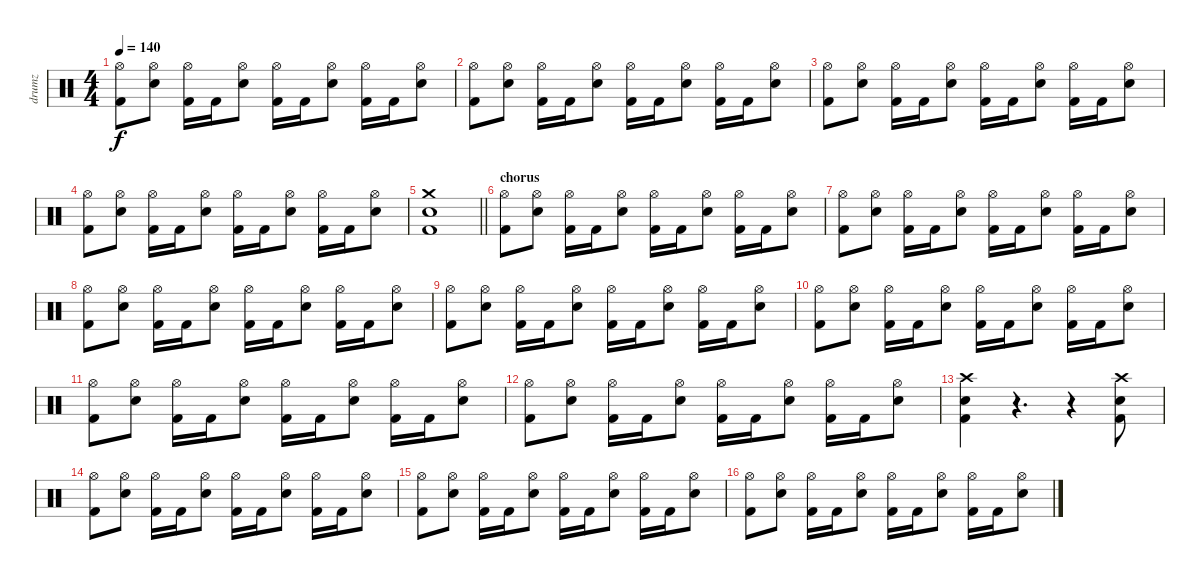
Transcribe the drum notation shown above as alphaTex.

\track ("drumz" "drumz") {instrument percussion}
\staff {score}
\articulation defaults
\ts (4 4)
\tempo 140
\clef neutral
\ks c
("Hi-Hat (open)" "Kick (hit) 2").8{dy f} ("Hi-Hat (open)" "Electric Snare (hit)").8 ("Hi-Hat (open)" "Kick (hit) 2").16 "Kick (hit) 2".16 ("Hi-Hat (open)" "Electric Snare (hit)").8 ("Hi-Hat (open)" "Kick (hit) 2").16 "Kick (hit) 2".16 ("Hi-Hat (open)" "Electric Snare (hit)").8 ("Hi-Hat (open)" "Kick (hit) 2").16 "Kick (hit) 2".16 ("Hi-Hat (open)" "Electric Snare (hit)").8 |
("Hi-Hat (open)" "Kick (hit) 2").8 ("Hi-Hat (open)" "Electric Snare (hit)").8 ("Hi-Hat (open)" "Kick (hit) 2").16 "Kick (hit) 2".16 ("Hi-Hat (open)" "Electric Snare (hit)").8 ("Hi-Hat (open)" "Kick (hit) 2").16 "Kick (hit) 2".16 ("Hi-Hat (open)" "Electric Snare (hit)").8 ("Hi-Hat (open)" "Kick (hit) 2").16 "Kick (hit) 2".16 ("Hi-Hat (open)" "Electric Snare (hit)").8 |
("Hi-Hat (open)" "Kick (hit) 2").8 ("Hi-Hat (open)" "Electric Snare (hit)").8 ("Hi-Hat (open)" "Kick (hit) 2").16 "Kick (hit) 2".16 ("Hi-Hat (open)" "Electric Snare (hit)").8 ("Hi-Hat (open)" "Kick (hit) 2").16 "Kick (hit) 2".16 ("Hi-Hat (open)" "Electric Snare (hit)").8 ("Hi-Hat (open)" "Kick (hit) 2").16 "Kick (hit) 2".16 ("Hi-Hat (open)" "Electric Snare (hit)").8 |
("Hi-Hat (open)" "Kick (hit) 2").8 ("Hi-Hat (open)" "Electric Snare (hit)").8 ("Hi-Hat (open)" "Kick (hit) 2").16 "Kick (hit) 2".16 ("Hi-Hat (open)" "Electric Snare (hit)").8 ("Hi-Hat (open)" "Kick (hit) 2").16 "Kick (hit) 2".16 ("Hi-Hat (open)" "Electric Snare (hit)").8 ("Hi-Hat (open)" "Kick (hit) 2").16 "Kick (hit) 2".16 ("Hi-Hat (open)" "Electric Snare (hit)").8 |
\barLineRight lightlight
("Crash medium (hit)" "Electric Snare (hit)" "Kick (hit) 2").1 |
\section ("" "chorus")
("Hi-Hat (open)" "Kick (hit) 2").8 ("Hi-Hat (open)" "Electric Snare (hit)").8 ("Hi-Hat (open)" "Kick (hit) 2").16 "Kick (hit) 2".16 ("Hi-Hat (open)" "Electric Snare (hit)").8 ("Hi-Hat (open)" "Kick (hit) 2").16 "Kick (hit) 2".16 ("Hi-Hat (open)" "Electric Snare (hit)").8 ("Hi-Hat (open)" "Kick (hit) 2").16 "Kick (hit) 2".16 ("Hi-Hat (open)" "Electric Snare (hit)").8 |
("Hi-Hat (open)" "Kick (hit) 2").8 ("Hi-Hat (open)" "Electric Snare (hit)").8 ("Hi-Hat (open)" "Kick (hit) 2").16 "Kick (hit) 2".16 ("Hi-Hat (open)" "Electric Snare (hit)").8 ("Hi-Hat (open)" "Kick (hit) 2").16 "Kick (hit) 2".16 ("Hi-Hat (open)" "Electric Snare (hit)").8 ("Hi-Hat (open)" "Kick (hit) 2").16 "Kick (hit) 2".16 ("Hi-Hat (open)" "Electric Snare (hit)").8 |
("Hi-Hat (open)" "Kick (hit) 2").8 ("Hi-Hat (open)" "Electric Snare (hit)").8 ("Hi-Hat (open)" "Kick (hit) 2").16 "Kick (hit) 2".16 ("Hi-Hat (open)" "Electric Snare (hit)").8 ("Hi-Hat (open)" "Kick (hit) 2").16 "Kick (hit) 2".16 ("Hi-Hat (open)" "Electric Snare (hit)").8 ("Hi-Hat (open)" "Kick (hit) 2").16 "Kick (hit) 2".16 ("Hi-Hat (open)" "Electric Snare (hit)").8 |
("Hi-Hat (open)" "Kick (hit) 2").8 ("Hi-Hat (open)" "Electric Snare (hit)").8 ("Hi-Hat (open)" "Kick (hit) 2").16 "Kick (hit) 2".16 ("Hi-Hat (open)" "Electric Snare (hit)").8 ("Hi-Hat (open)" "Kick (hit) 2").16 "Kick (hit) 2".16 ("Hi-Hat (open)" "Electric Snare (hit)").8 ("Hi-Hat (open)" "Kick (hit) 2").16 "Kick (hit) 2".16 ("Hi-Hat (open)" "Electric Snare (hit)").8 |
("Hi-Hat (open)" "Kick (hit) 2").8 ("Hi-Hat (open)" "Electric Snare (hit)").8 ("Hi-Hat (open)" "Kick (hit) 2").16 "Kick (hit) 2".16 ("Hi-Hat (open)" "Electric Snare (hit)").8 ("Hi-Hat (open)" "Kick (hit) 2").16 "Kick (hit) 2".16 ("Hi-Hat (open)" "Electric Snare (hit)").8 ("Hi-Hat (open)" "Kick (hit) 2").16 "Kick (hit) 2".16 ("Hi-Hat (open)" "Electric Snare (hit)").8 |
("Hi-Hat (open)" "Kick (hit) 2").8 ("Hi-Hat (open)" "Electric Snare (hit)").8 ("Hi-Hat (open)" "Kick (hit) 2").16 "Kick (hit) 2".16 ("Hi-Hat (open)" "Electric Snare (hit)").8 ("Hi-Hat (open)" "Kick (hit) 2").16 "Kick (hit) 2".16 ("Hi-Hat (open)" "Electric Snare (hit)").8 ("Hi-Hat (open)" "Kick (hit) 2").16 "Kick (hit) 2".16 ("Hi-Hat (open)" "Electric Snare (hit)").8 |
("Hi-Hat (open)" "Kick (hit) 2").8 ("Hi-Hat (open)" "Electric Snare (hit)").8 ("Hi-Hat (open)" "Kick (hit) 2").16 "Kick (hit) 2".16 ("Hi-Hat (open)" "Electric Snare (hit)").8 ("Hi-Hat (open)" "Kick (hit) 2").16 "Kick (hit) 2".16 ("Hi-Hat (open)" "Electric Snare (hit)").8 ("Hi-Hat (open)" "Kick (hit) 2").16 "Kick (hit) 2".16 ("Hi-Hat (open)" "Electric Snare (hit)").8 |
("Crash high (hit)" "Electric Snare (hit)" "Kick (hit) 2").4 r.4{d} r.4 ("Crash high (hit)" "Electric Snare (hit)" "Kick (hit) 2").8 |
("Hi-Hat (open)" "Kick (hit) 2").8 ("Hi-Hat (open)" "Electric Snare (hit)").8 ("Hi-Hat (open)" "Kick (hit) 2").16 "Kick (hit) 2".16 ("Hi-Hat (open)" "Electric Snare (hit)").8 ("Hi-Hat (open)" "Kick (hit) 2").16 "Kick (hit) 2".16 ("Hi-Hat (open)" "Electric Snare (hit)").8 ("Hi-Hat (open)" "Kick (hit) 2").16 "Kick (hit) 2".16 ("Hi-Hat (open)" "Electric Snare (hit)").8 |
("Hi-Hat (open)" "Kick (hit) 2").8 ("Hi-Hat (open)" "Electric Snare (hit)").8 ("Hi-Hat (open)" "Kick (hit) 2").16 "Kick (hit) 2".16 ("Hi-Hat (open)" "Electric Snare (hit)").8 ("Hi-Hat (open)" "Kick (hit) 2").16 "Kick (hit) 2".16 ("Hi-Hat (open)" "Electric Snare (hit)").8 ("Hi-Hat (open)" "Kick (hit) 2").16 "Kick (hit) 2".16 ("Hi-Hat (open)" "Electric Snare (hit)").8 |
("Hi-Hat (open)" "Kick (hit) 2").8 ("Hi-Hat (open)" "Electric Snare (hit)").8 ("Hi-Hat (open)" "Kick (hit) 2").16 "Kick (hit) 2".16 ("Hi-Hat (open)" "Electric Snare (hit)").8 ("Hi-Hat (open)" "Kick (hit) 2").16 "Kick (hit) 2".16 ("Hi-Hat (open)" "Electric Snare (hit)").8 ("Hi-Hat (open)" "Kick (hit) 2").16 "Kick (hit) 2".16 ("Hi-Hat (open)" "Electric Snare (hit)").8
